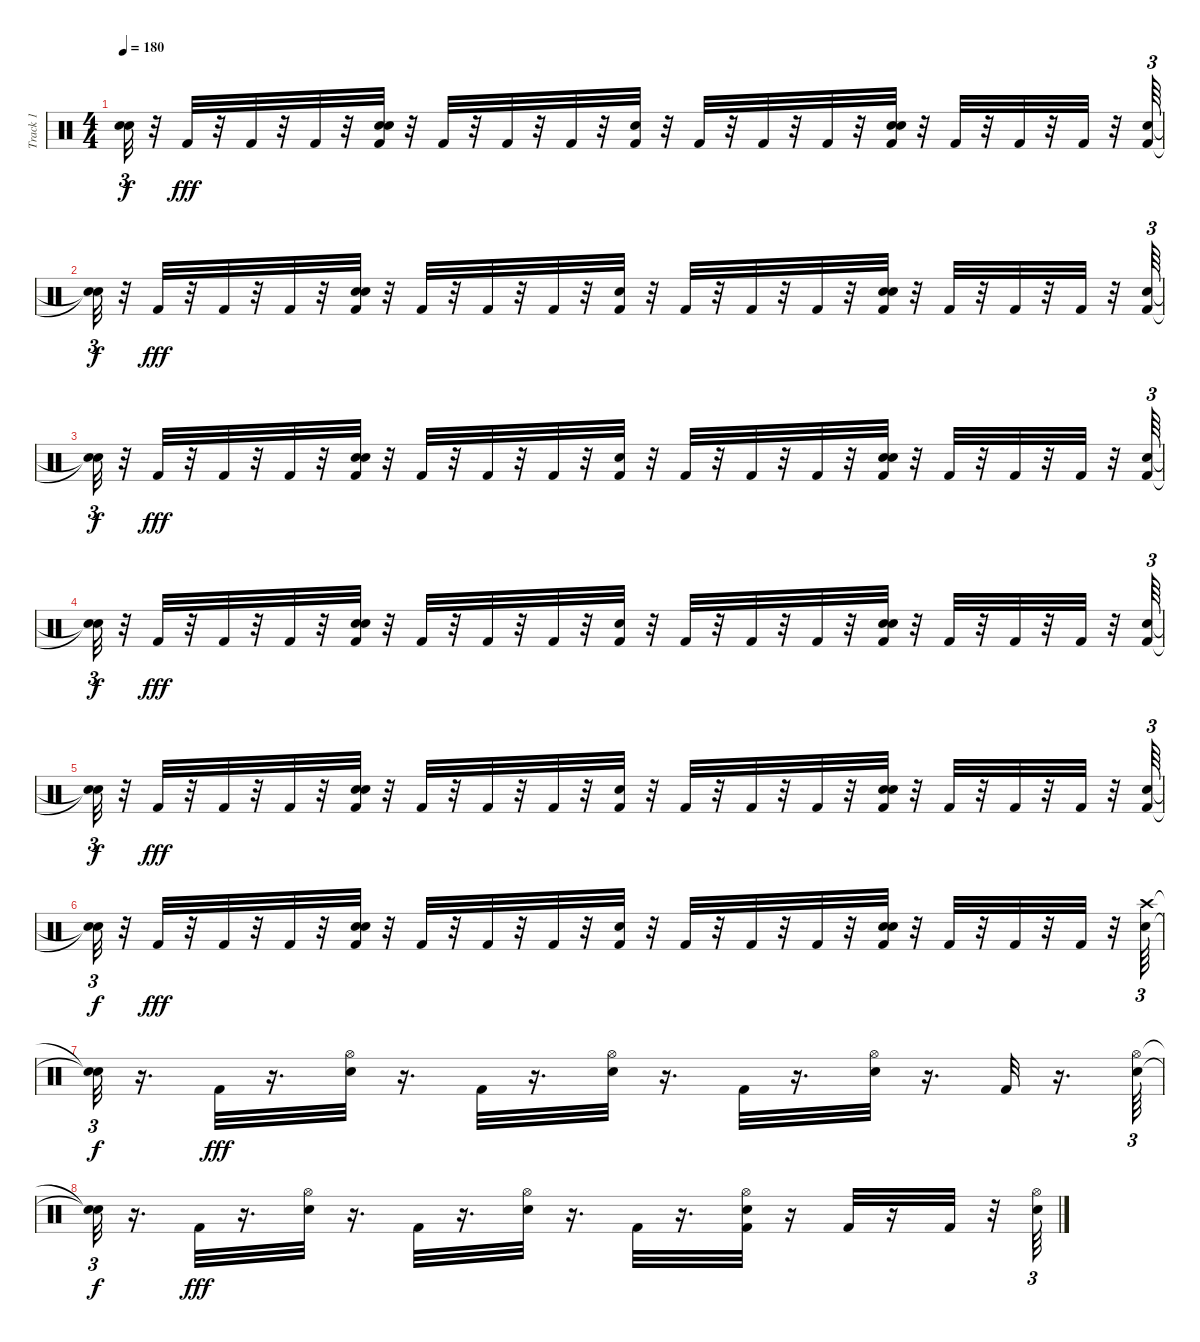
\track ("Track 1" "Track 1") {mute instrument percussion}
\staff {score}
\articulation defaults
\ts (4 4)
\tempo 180
\clef neutral
\ks c
("Snare (hit)"{t} "Snare (hit)"{t}).32{tu (3 2) dy f} r.32 "Kick (hit) 2".32{dy fff} r.32 "Kick (hit) 2".32 r.32 "Kick (hit) 2".32 r.32 ("Snare (hit)" "Snare (hit) 2" "Kick (hit) 2").32 r.32 "Kick (hit) 2".32 r.32 "Kick (hit) 2".32 r.32 "Kick (hit) 2".32 r.32 ("Kick (hit) 2" "Snare (hit)").32 r.32 "Kick (hit) 2".32 r.32 "Kick (hit) 2".32 r.32 "Kick (hit) 2".32 r.32 ("Snare (hit) 2" "Snare (hit)" "Kick (hit) 2").32 r.32 "Kick (hit) 2".32 r.32 "Kick (hit) 2".32 r.32 "Kick (hit) 2".32 r.32 ("Kick (hit) 2" "Snare (hit)").64{tu (3 2)} |
("Snare (hit)"{t} "Snare (hit)"{t}).32{tu (3 2) dy f} r.32 "Kick (hit) 2".32{dy fff} r.32 "Kick (hit) 2".32 r.32 "Kick (hit) 2".32 r.32 ("Snare (hit)" "Kick (hit) 2" "Snare (hit) 2").32 r.32 "Kick (hit) 2".32 r.32 "Kick (hit) 2".32 r.32 "Kick (hit) 2".32 r.32 ("Kick (hit) 2" "Snare (hit)").32 r.32 "Kick (hit) 2".32 r.32 "Kick (hit) 2".32 r.32 "Kick (hit) 2".32 r.32 ("Snare (hit)" "Snare (hit) 2" "Kick (hit) 2").32 r.32 "Kick (hit) 2".32 r.32 "Kick (hit) 2".32 r.32 "Kick (hit) 2".32 r.32 ("Kick (hit) 2" "Snare (hit)").64{tu (3 2)} |
("Snare (hit)"{t} "Snare (hit)"{t}).32{tu (3 2) dy f} r.32 "Kick (hit) 2".32{dy fff} r.32 "Kick (hit) 2".32 r.32 "Kick (hit) 2".32 r.32 ("Snare (hit)" "Kick (hit) 2" "Snare (hit) 2").32 r.32 "Kick (hit) 2".32 r.32 "Kick (hit) 2".32 r.32 "Kick (hit) 2".32 r.32 ("Kick (hit) 2" "Snare (hit)").32 r.32 "Kick (hit) 2".32 r.32 "Kick (hit) 2".32 r.32 "Kick (hit) 2".32 r.32 ("Snare (hit)" "Kick (hit) 2" "Snare (hit) 2").32 r.32 "Kick (hit) 2".32 r.32 "Kick (hit) 2".32 r.32 "Kick (hit) 2".32 r.32 ("Kick (hit) 2" "Snare (hit)").64{tu (3 2)} |
("Snare (hit)"{t} "Snare (hit)"{t}).32{tu (3 2) dy f} r.32 "Kick (hit) 2".32{dy fff} r.32 "Kick (hit) 2".32 r.32 "Kick (hit) 2".32 r.32 ("Snare (hit)" "Kick (hit) 2" "Snare (hit) 2").32 r.32 "Kick (hit) 2".32 r.32 "Kick (hit) 2".32 r.32 "Kick (hit) 2".32 r.32 ("Kick (hit) 2" "Snare (hit)").32 r.32 "Kick (hit) 2".32 r.32 "Kick (hit) 2".32 r.32 "Kick (hit) 2".32 r.32 ("Snare (hit) 2" "Snare (hit)" "Kick (hit) 2").32 r.32 "Kick (hit) 2".32 r.32 "Kick (hit) 2".32 r.32 "Kick (hit) 2".32 r.32 ("Kick (hit) 2" "Snare (hit)").64{tu (3 2)} |
("Snare (hit)"{t} "Snare (hit)"{t}).32{tu (3 2) dy f} r.32 "Kick (hit) 2".32{dy fff} r.32 "Kick (hit) 2".32 r.32 "Kick (hit) 2".32 r.32 ("Snare (hit)" "Snare (hit) 2" "Kick (hit) 2").32 r.32 "Kick (hit) 2".32 r.32 "Kick (hit) 2".32 r.32 "Kick (hit) 2".32 r.32 ("Kick (hit) 2" "Snare (hit)").32 r.32 "Kick (hit) 2".32 r.32 "Kick (hit) 2".32 r.32 "Kick (hit) 2".32 r.32 ("Snare (hit) 2" "Snare (hit)" "Kick (hit) 2").32 r.32 "Kick (hit) 2".32 r.32 "Kick (hit) 2".32 r.32 "Kick (hit) 2".32 r.32 ("Kick (hit) 2" "Snare (hit)").64{tu (3 2)} |
("Snare (hit)"{t} "Snare (hit)"{t}).32{tu (3 2) dy f} r.32 "Kick (hit) 2".32{dy fff} r.32 "Kick (hit) 2".32 r.32 "Kick (hit) 2".32 r.32 ("Snare (hit)" "Kick (hit) 2" "Snare (hit) 2").32 r.32 "Kick (hit) 2".32 r.32 "Kick (hit) 2".32 r.32 "Kick (hit) 2".32 r.32 ("Kick (hit) 2" "Snare (hit)").32 r.32 "Kick (hit) 2".32 r.32 "Kick (hit) 2".32 r.32 "Kick (hit) 2".32 r.32 ("Snare (hit)" "Snare (hit) 2" "Kick (hit) 2").32 r.32 "Kick (hit) 2".32 r.32 "Kick (hit) 2".32 r.32 "Kick (hit) 2".32 r.32 ("Electric Snare (hit)" "Crash high (hit)").64{tu (3 2)} |
("Snare (hit)"{t} "Snare (hit)"{t}).32{tu (3 2) dy f} r.16{d} "Kick (hit) 2".32{dy fff} r.16{d} ("Electric Snare (hit)" "Hi-Hat (open)").32 r.16{d} "Kick (hit) 2".32 r.16{d} ("Electric Snare (hit)" "Hi-Hat (open)").32 r.16{d} "Kick (hit) 2".32 r.16{d} ("Electric Snare (hit)" "Hi-Hat (open)").32 r.16{d} "Kick (hit) 2".32 r.16{d} ("Electric Snare (hit)" "Hi-Hat (open)").64{tu (3 2)} |
("Snare (hit)"{t} "Snare (hit)"{t}).32{tu (3 2) dy f} r.16{d} "Kick (hit) 2".32{dy fff} r.16{d} ("Hi-Hat (open)" "Electric Snare (hit)").32 r.16{d} "Kick (hit) 2".32 r.16{d} ("Electric Snare (hit)" "Hi-Hat (open)").32 r.16{d} "Kick (hit) 2".32 r.16{d} ("Hi-Hat (open)" "Electric Snare (hit)" "Kick (hit) 2").32 r.16 "Kick (hit) 2".32 r.16 "Kick (hit) 2".32 r.32 ("Electric Snare (hit)" "Hi-Hat (open)").64{tu (3 2)}
